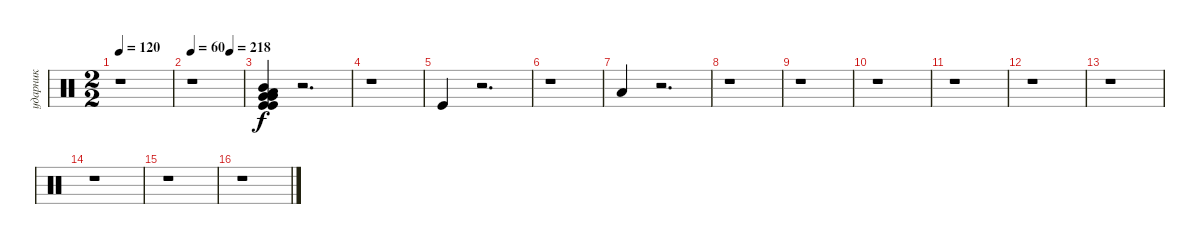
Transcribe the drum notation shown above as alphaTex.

\track ("ударник" "ударник") {instrument percussion}
\staff {score}
\articulation defaults
\ts (2 2)
\tempo 120
\clef neutral
\ks c
r.1{dy f} |
\tempo 60
\tempo (218 0.75)
r.1 |
("Kick (hit)" "Low Floor Tom (hit)" "Mid Tom (hit)" "Kick (hit)" "Very Low Tom (hit)" "Very Low Tom (hit)").4 r.2{d} |
r.1 |
"Kick (hit)".4 r.2{d} |
r.1 |
"Low Floor Tom (hit)".4 r.2{d} |
r.1 |
r.1 |
r.1 |
r.1 |
r.1 |
r.1 |
r.1 |
r.1 |
r.1
